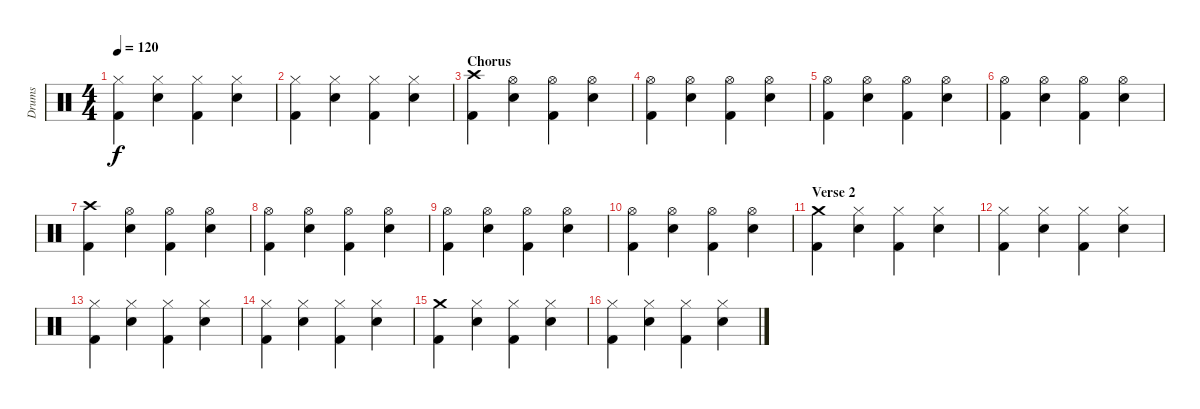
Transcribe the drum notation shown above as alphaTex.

\track ("Drums" "Drums") {instrument percussion}
\staff {score}
\articulation defaults
\ts (4 4)
\tempo 120
\clef neutral
\ks c
("Hi-Hat (closed)" "Kick (hit) 2").4{dy f} ("Hi-Hat (closed)" "Electric Snare (hit)").4 ("Hi-Hat (closed)" "Kick (hit) 2").4 ("Hi-Hat (closed)" "Electric Snare (hit)").4 |
("Hi-Hat (closed)" "Kick (hit) 2").4 ("Hi-Hat (closed)" "Electric Snare (hit)").4 ("Hi-Hat (closed)" "Kick (hit) 2").4 ("Hi-Hat (closed)" "Electric Snare (hit)").4 |
\section ("" "Chorus")
("Crash high (hit)" "Kick (hit) 2").4 ("Hi-Hat (open)" "Electric Snare (hit)").4 ("Hi-Hat (open)" "Kick (hit) 2").4 ("Hi-Hat (open)" "Electric Snare (hit)").4 |
("Hi-Hat (open)" "Kick (hit) 2").4 ("Hi-Hat (open)" "Electric Snare (hit)").4 ("Hi-Hat (open)" "Kick (hit) 2").4 ("Hi-Hat (open)" "Electric Snare (hit)").4 |
("Hi-Hat (open)" "Kick (hit) 2").4 ("Hi-Hat (open)" "Electric Snare (hit)").4 ("Hi-Hat (open)" "Kick (hit) 2").4 ("Hi-Hat (open)" "Electric Snare (hit)").4 |
("Hi-Hat (open)" "Kick (hit) 2").4 ("Hi-Hat (open)" "Electric Snare (hit)").4 ("Hi-Hat (open)" "Kick (hit) 2").4 ("Hi-Hat (open)" "Electric Snare (hit)").4 |
("Crash high (hit)" "Kick (hit) 2").4 ("Hi-Hat (open)" "Electric Snare (hit)").4 ("Hi-Hat (open)" "Kick (hit) 2").4 ("Hi-Hat (open)" "Electric Snare (hit)").4 |
("Hi-Hat (open)" "Kick (hit) 2").4 ("Hi-Hat (open)" "Electric Snare (hit)").4 ("Hi-Hat (open)" "Kick (hit) 2").4 ("Hi-Hat (open)" "Electric Snare (hit)").4 |
("Hi-Hat (open)" "Kick (hit) 2").4 ("Hi-Hat (open)" "Electric Snare (hit)").4 ("Hi-Hat (open)" "Kick (hit) 2").4 ("Hi-Hat (open)" "Electric Snare (hit)").4 |
("Hi-Hat (open)" "Kick (hit) 2").4 ("Hi-Hat (open)" "Electric Snare (hit)").4 ("Hi-Hat (open)" "Kick (hit) 2").4 ("Hi-Hat (open)" "Electric Snare (hit)").4 |
\section ("" "Verse 2")
("Crash medium (hit)" "Kick (hit) 2").4 ("Hi-Hat (closed)" "Electric Snare (hit)").4 ("Hi-Hat (closed)" "Kick (hit) 2").4 ("Hi-Hat (closed)" "Electric Snare (hit)").4 |
("Hi-Hat (closed)" "Kick (hit) 2").4 ("Hi-Hat (closed)" "Electric Snare (hit)").4 ("Hi-Hat (closed)" "Kick (hit) 2").4 ("Hi-Hat (closed)" "Electric Snare (hit)").4 |
("Hi-Hat (closed)" "Kick (hit) 2").4 ("Hi-Hat (closed)" "Electric Snare (hit)").4 ("Hi-Hat (closed)" "Kick (hit) 2").4 ("Hi-Hat (closed)" "Electric Snare (hit)").4 |
("Hi-Hat (closed)" "Kick (hit) 2").4 ("Hi-Hat (closed)" "Electric Snare (hit)").4 ("Hi-Hat (closed)" "Kick (hit) 2").4 ("Hi-Hat (closed)" "Electric Snare (hit)").4 |
("Crash medium (hit)" "Kick (hit) 2").4 ("Hi-Hat (closed)" "Electric Snare (hit)").4 ("Hi-Hat (closed)" "Kick (hit) 2").4 ("Hi-Hat (closed)" "Electric Snare (hit)").4 |
("Hi-Hat (closed)" "Kick (hit) 2").4 ("Hi-Hat (closed)" "Electric Snare (hit)").4 ("Hi-Hat (closed)" "Kick (hit) 2").4 ("Hi-Hat (closed)" "Electric Snare (hit)").4
